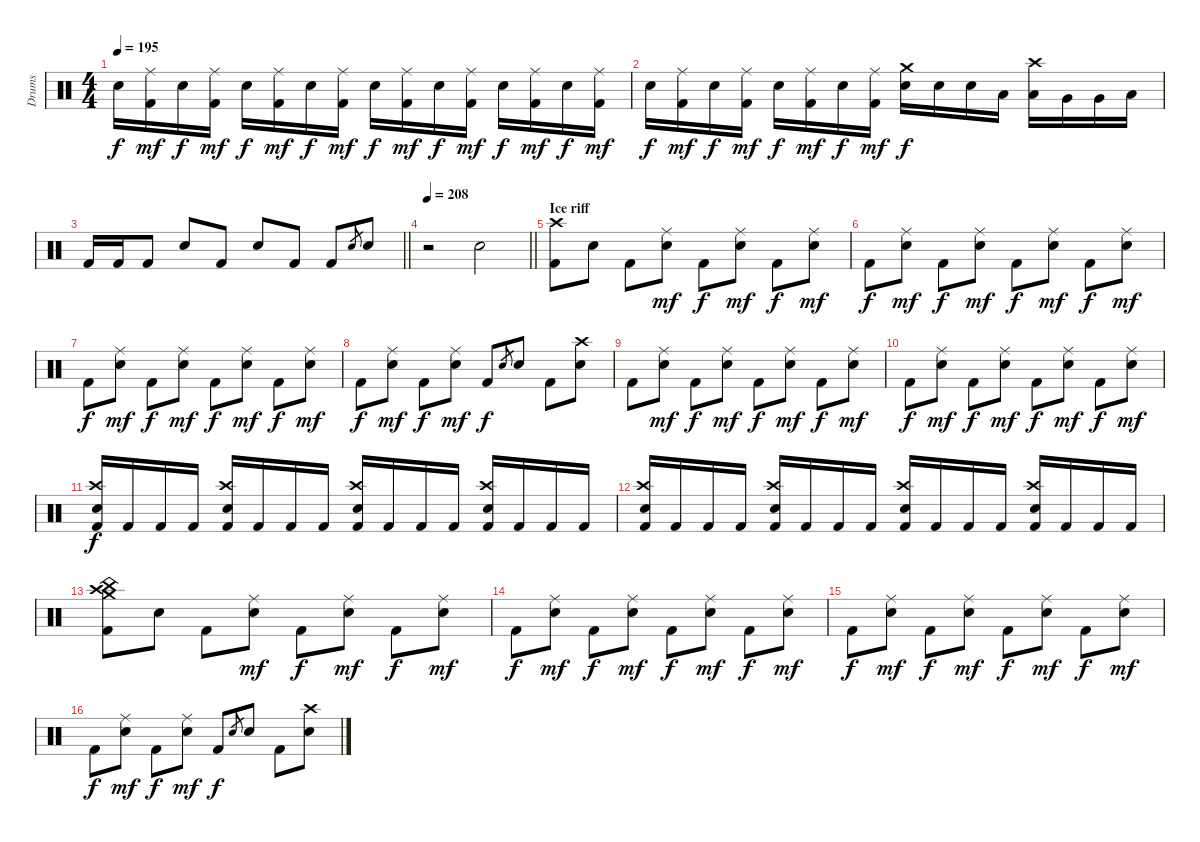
\track ("Drums" "Drums") {instrument percussion}
\staff {score}
\articulation defaults
\ts (4 4)
\tempo 195
\clef neutral
\ks c "Snare (hit) 2".16{dy f}
("Ride (middle)" "Kick (hit) 2").16{dy mf} "Snare (hit) 2".16{dy f} ("Ride (middle)" "Kick (hit) 2").16{dy mf} "Snare (hit) 2".16{dy f} ("Ride (middle)" "Kick (hit) 2").16{dy mf} "Snare (hit) 2".16{dy f} ("Ride (middle)" "Kick (hit) 2").16{dy mf} "Snare (hit) 2".16{dy f} ("Ride (middle)" "Kick (hit) 2").16{dy mf} "Snare (hit) 2".16{dy f} ("Ride (middle)" "Kick (hit) 2").16{dy mf} "Snare (hit) 2".16{dy f} ("Ride (middle)" "Kick (hit) 2").16{dy mf} "Snare (hit) 2".16{dy f} ("Ride (middle)" "Kick (hit) 2").16{dy mf} |
"Snare (hit) 2".16{dy f} ("Ride (middle)" "Kick (hit) 2").16{dy mf} "Snare (hit) 2".16{dy f} ("Ride (middle)" "Kick (hit) 2").16{dy mf} "Snare (hit) 2".16{dy f} ("Ride (middle)" "Kick (hit) 2").16{dy mf} "Snare (hit) 2".16{dy f} ("Ride (middle)" "Kick (hit) 2").16{dy mf} ("Crash medium (hit)" "Snare (hit) 2").16{dy f} "Snare (hit) 2".16 "Snare (hit) 2".16 "Low Tom (hit)".16 ("Crash high (hit)" "Low Tom (hit)").16 "Very Low Tom (hit)".16 "Very Low Tom (hit)".16 "Low Floor Tom (hit)".16 |
\barLineRight lightlight "Kick (hit) 2".16 "Kick (hit) 2".16 "Kick (hit) 2".8 "Snare (hit) 2".8 "Kick (hit) 2".8 "Snare (hit) 2".8 "Kick (hit) 2".8 "Kick (hit) 2".8 "Snare (hit) 2".8{gr} "Snare (hit) 2".8
|
\tempo 208
\barLineRight lightlight
r.2 "Snare (hit) 2".2 |
\section ("" "Ice riff")
("Crash high (hit)" "Kick (hit) 2").8 "Electric Snare (hit)".8 "Kick (hit) 2".8 ("Ride (middle)" "Electric Snare (hit)").8{dy mf} "Kick (hit) 2".8{dy f} ("Ride (middle)" "Electric Snare (hit)").8{dy mf} "Kick (hit) 2".8{dy f} ("Ride (middle)" "Electric Snare (hit)").8{dy mf} |
"Kick (hit) 2".8{dy f} ("Ride (middle)" "Electric Snare (hit)").8{dy mf} "Kick (hit) 2".8{dy f} ("Ride (middle)" "Electric Snare (hit)").8{dy mf} "Kick (hit) 2".8{dy f} ("Ride (middle)" "Electric Snare (hit)").8{dy mf} "Kick (hit) 2".8{dy f} ("Ride (middle)" "Electric Snare (hit)").8{dy mf} |
"Kick (hit) 2".8{dy f} ("Ride (middle)" "Electric Snare (hit)").8{dy mf} "Kick (hit) 2".8{dy f} ("Ride (middle)" "Electric Snare (hit)").8{dy mf} "Kick (hit) 2".8{dy f} ("Ride (middle)" "Electric Snare (hit)").8{dy mf} "Kick (hit) 2".8{dy f} ("Ride (middle)" "Electric Snare (hit)").8{dy mf} |
"Kick (hit) 2".8{dy f} ("Ride (middle)" "Electric Snare (hit)").8{dy mf} "Kick (hit) 2".8{dy f} ("Ride (middle)" "Electric Snare (hit)").8{dy mf} "Kick (hit) 2".8{dy f} "Electric Snare (hit)".8{gr} "Electric Snare (hit)".8 "Kick (hit) 2".8 ("Crash high (hit)" "Electric Snare (hit)").8 |
"Kick (hit) 2".8 ("Ride (middle)" "Electric Snare (hit)").8{dy mf} "Kick (hit) 2".8{dy f} ("Ride (middle)" "Electric Snare (hit)").8{dy mf} "Kick (hit) 2".8{dy f} ("Ride (middle)" "Electric Snare (hit)").8{dy mf} "Kick (hit) 2".8{dy f} ("Ride (middle)" "Electric Snare (hit)").8{dy mf} |
"Kick (hit) 2".8{dy f} ("Ride (middle)" "Electric Snare (hit)").8{dy mf} "Kick (hit) 2".8{dy f} ("Ride (middle)" "Electric Snare (hit)").8{dy mf} "Kick (hit) 2".8{dy f} ("Ride (middle)" "Electric Snare (hit)").8{dy mf} "Kick (hit) 2".8{dy f} ("Ride (middle)" "Electric Snare (hit)").8{dy mf} |
("Crash high (hit)" "Electric Snare (hit)" "Kick (hit) 2").16{dy f} "Kick (hit) 2".16 "Kick (hit) 2".16 "Kick (hit) 2".16 ("Crash high (hit)" "Electric Snare (hit)" "Kick (hit) 2").16 "Kick (hit) 2".16 "Kick (hit) 2".16 "Kick (hit) 2".16 ("Crash high (hit)" "Electric Snare (hit)" "Kick (hit) 2").16 "Kick (hit) 2".16 "Kick (hit) 2".16 "Kick (hit) 2".16 ("Crash high (hit)" "Electric Snare (hit)" "Kick (hit) 2").16 "Kick (hit) 2".16 "Kick (hit) 2".16 "Kick (hit) 2".16 |
("Crash high (hit)" "Electric Snare (hit)" "Kick (hit) 2").16 "Kick (hit) 2".16 "Kick (hit) 2".16 "Kick (hit) 2".16 ("Crash high (hit)" "Electric Snare (hit)" "Kick (hit) 2").16 "Kick (hit) 2".16 "Kick (hit) 2".16 "Kick (hit) 2".16 ("Crash high (hit)" "Electric Snare (hit)" "Kick (hit) 2").16 "Kick (hit) 2".16 "Kick (hit) 2".16 "Kick (hit) 2".16 ("Crash high (hit)" "Electric Snare (hit)" "Kick (hit) 2").16 "Kick (hit) 2".16 "Kick (hit) 2".16 "Kick (hit) 2".16 |
("Crash high (hit)" "Crash medium (hit)" "China (hit)" "Kick (hit) 2").8 "Electric Snare (hit)".8 "Kick (hit) 2".8 ("Ride (middle)" "Electric Snare (hit)").8{dy mf} "Kick (hit) 2".8{dy f} ("Ride (middle)" "Electric Snare (hit)").8{dy mf} "Kick (hit) 2".8{dy f} ("Ride (middle)" "Electric Snare (hit)").8{dy mf} |
"Kick (hit) 2".8{dy f} ("Ride (middle)" "Electric Snare (hit)").8{dy mf} "Kick (hit) 2".8{dy f} ("Ride (middle)" "Electric Snare (hit)").8{dy mf} "Kick (hit) 2".8{dy f} ("Ride (middle)" "Electric Snare (hit)").8{dy mf} "Kick (hit) 2".8{dy f} ("Ride (middle)" "Electric Snare (hit)").8{dy mf} |
"Kick (hit) 2".8{dy f} ("Ride (middle)" "Electric Snare (hit)").8{dy mf} "Kick (hit) 2".8{dy f} ("Ride (middle)" "Electric Snare (hit)").8{dy mf} "Kick (hit) 2".8{dy f} ("Ride (middle)" "Electric Snare (hit)").8{dy mf} "Kick (hit) 2".8{dy f} ("Ride (middle)" "Electric Snare (hit)").8{dy mf} |
"Kick (hit) 2".8{dy f} ("Ride (middle)" "Electric Snare (hit)").8{dy mf} "Kick (hit) 2".8{dy f} ("Ride (middle)" "Electric Snare (hit)").8{dy mf} "Kick (hit) 2".8{dy f} "Electric Snare (hit)".8{gr} "Electric Snare (hit)".8 "Kick (hit) 2".8 ("Crash high (hit)" "Electric Snare (hit)").8
